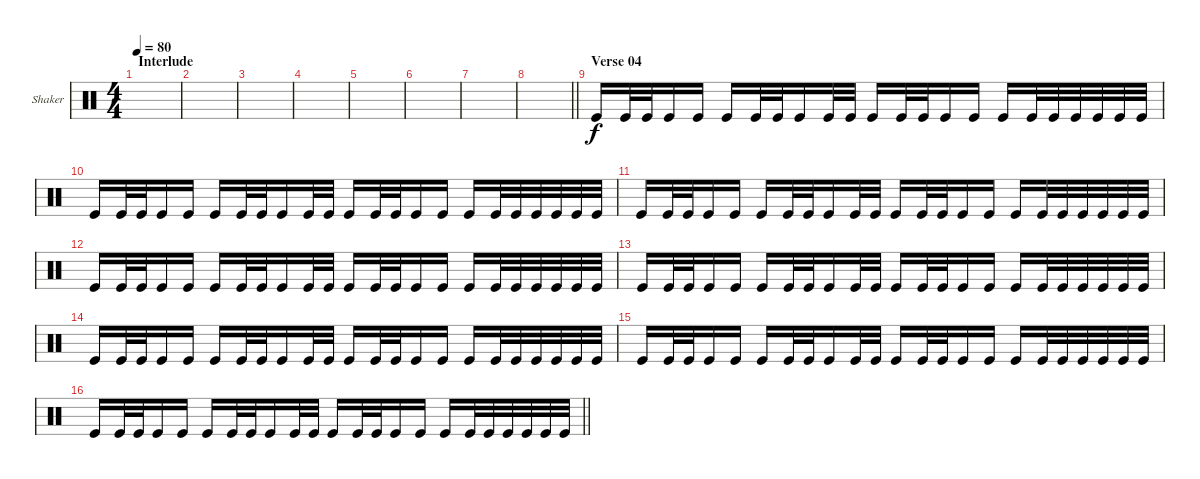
\bracketExtendMode groupsimilarinstruments
\firstSystemTrackNameOrientation horizontal
\otherSystemsTrackNameOrientation horizontal
\track ("Shaker" "Shaker") {instrument percussion}
\staff {score}
\articulation defaults
\ts (4 4)
\section ("" "Interlude")
\tempo 80
\clef neutral
\ks c
|
|
|
|
|
|
|
\barLineRight lightlight
|
\section ("" "Verse 04")
"Kick (hit)".16 "Kick (hit)".32 "Kick (hit)".32 "Kick (hit)".16 "Kick (hit)".16 "Kick (hit)".16 "Kick (hit)".32 "Kick (hit)".32 "Kick (hit)".16 "Kick (hit)".32 "Kick (hit)".32 "Kick (hit)".16 "Kick (hit)".32 "Kick (hit)".32 "Kick (hit)".16 "Kick (hit)".16 "Kick (hit)".16 "Kick (hit)".32 "Kick (hit)".32 "Kick (hit)".32 "Kick (hit)".32 "Kick (hit)".32 "Kick (hit)".32 |
"Kick (hit)".16 "Kick (hit)".32 "Kick (hit)".32 "Kick (hit)".16 "Kick (hit)".16 "Kick (hit)".16 "Kick (hit)".32 "Kick (hit)".32 "Kick (hit)".16 "Kick (hit)".32 "Kick (hit)".32 "Kick (hit)".16 "Kick (hit)".32 "Kick (hit)".32 "Kick (hit)".16 "Kick (hit)".16 "Kick (hit)".16 "Kick (hit)".32 "Kick (hit)".32 "Kick (hit)".32 "Kick (hit)".32 "Kick (hit)".32 "Kick (hit)".32 |
"Kick (hit)".16 "Kick (hit)".32 "Kick (hit)".32 "Kick (hit)".16 "Kick (hit)".16 "Kick (hit)".16 "Kick (hit)".32 "Kick (hit)".32 "Kick (hit)".16 "Kick (hit)".32 "Kick (hit)".32 "Kick (hit)".16 "Kick (hit)".32 "Kick (hit)".32 "Kick (hit)".16 "Kick (hit)".16 "Kick (hit)".16 "Kick (hit)".32 "Kick (hit)".32 "Kick (hit)".32 "Kick (hit)".32 "Kick (hit)".32 "Kick (hit)".32 |
"Kick (hit)".16 "Kick (hit)".32 "Kick (hit)".32 "Kick (hit)".16 "Kick (hit)".16 "Kick (hit)".16 "Kick (hit)".32 "Kick (hit)".32 "Kick (hit)".16 "Kick (hit)".32 "Kick (hit)".32 "Kick (hit)".16 "Kick (hit)".32 "Kick (hit)".32 "Kick (hit)".16 "Kick (hit)".16 "Kick (hit)".16 "Kick (hit)".32 "Kick (hit)".32 "Kick (hit)".32 "Kick (hit)".32 "Kick (hit)".32 "Kick (hit)".32 |
"Kick (hit)".16 "Kick (hit)".32 "Kick (hit)".32 "Kick (hit)".16 "Kick (hit)".16 "Kick (hit)".16 "Kick (hit)".32 "Kick (hit)".32 "Kick (hit)".16 "Kick (hit)".32 "Kick (hit)".32 "Kick (hit)".16 "Kick (hit)".32 "Kick (hit)".32 "Kick (hit)".16 "Kick (hit)".16 "Kick (hit)".16 "Kick (hit)".32 "Kick (hit)".32 "Kick (hit)".32 "Kick (hit)".32 "Kick (hit)".32 "Kick (hit)".32 |
"Kick (hit)".16 "Kick (hit)".32 "Kick (hit)".32 "Kick (hit)".16 "Kick (hit)".16 "Kick (hit)".16 "Kick (hit)".32 "Kick (hit)".32 "Kick (hit)".16 "Kick (hit)".32 "Kick (hit)".32 "Kick (hit)".16 "Kick (hit)".32 "Kick (hit)".32 "Kick (hit)".16 "Kick (hit)".16 "Kick (hit)".16 "Kick (hit)".32 "Kick (hit)".32 "Kick (hit)".32 "Kick (hit)".32 "Kick (hit)".32 "Kick (hit)".32 |
"Kick (hit)".16 "Kick (hit)".32 "Kick (hit)".32 "Kick (hit)".16 "Kick (hit)".16 "Kick (hit)".16 "Kick (hit)".32 "Kick (hit)".32 "Kick (hit)".16 "Kick (hit)".32 "Kick (hit)".32 "Kick (hit)".16 "Kick (hit)".32 "Kick (hit)".32 "Kick (hit)".16 "Kick (hit)".16 "Kick (hit)".16 "Kick (hit)".32 "Kick (hit)".32 "Kick (hit)".32 "Kick (hit)".32 "Kick (hit)".32 "Kick (hit)".32 |
\barLineRight lightlight "Kick (hit)".16 "Kick (hit)".32 "Kick (hit)".32 "Kick (hit)".16 "Kick (hit)".16 "Kick (hit)".16 "Kick (hit)".32 "Kick (hit)".32 "Kick (hit)".16 "Kick (hit)".32 "Kick (hit)".32 "Kick (hit)".16 "Kick (hit)".32 "Kick (hit)".32 "Kick (hit)".16 "Kick (hit)".16 "Kick (hit)".16 "Kick (hit)".32 "Kick (hit)".32 "Kick (hit)".32 "Kick (hit)".32 "Kick (hit)".32 "Kick (hit)".32
